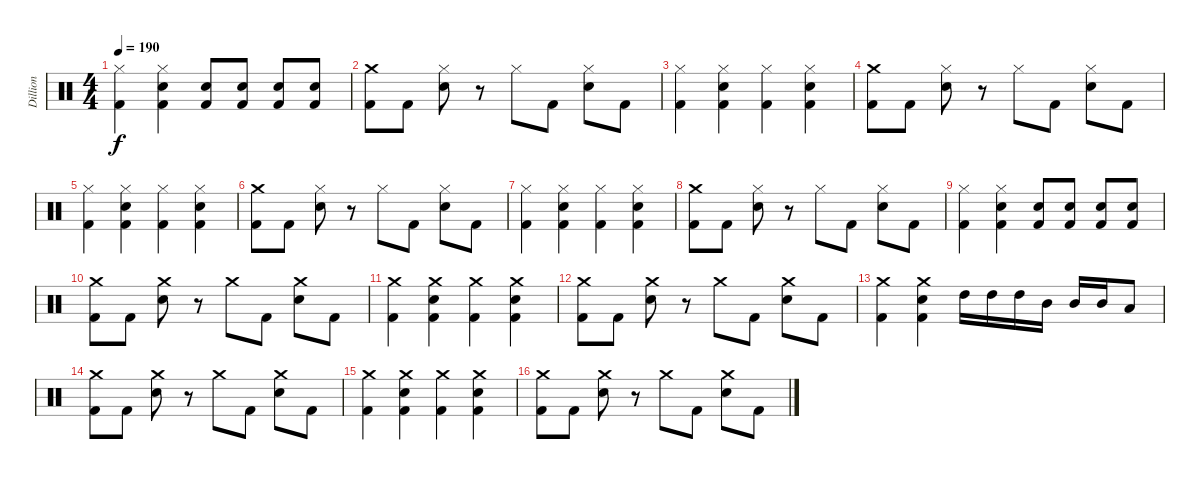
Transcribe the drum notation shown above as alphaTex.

\track ("Dillion" "Dillion") {instrument percussion}
\staff {score}
\articulation defaults
\ts (4 4)
\tempo 190
\clef neutral
\ks c
("Hi-Hat (closed)" "Kick (hit) 2").4{dy f} ("Hi-Hat (closed)" "Electric Snare (hit)" "Kick (hit) 2").4 ("Electric Snare (hit)" "Kick (hit) 2").8 ("Electric Snare (hit)" "Kick (hit) 2").8 ("Electric Snare (hit)" "Kick (hit) 2").8 ("Electric Snare (hit)" "Kick (hit) 2").8 |
("Crash medium (hit)" "Kick (hit) 2").8 "Kick (hit) 2".8 ("Hi-Hat (closed)" "Electric Snare (hit)").8 r.8 "Hi-Hat (closed)".8 "Kick (hit) 2".8 ("Hi-Hat (closed)" "Electric Snare (hit)").8 "Kick (hit) 2".8 |
("Hi-Hat (closed)" "Kick (hit) 2").4 ("Hi-Hat (closed)" "Electric Snare (hit)" "Kick (hit) 2").4 ("Hi-Hat (closed)" "Kick (hit) 2").4 ("Hi-Hat (closed)" "Electric Snare (hit)" "Kick (hit) 2").4 |
("Crash medium (hit)" "Kick (hit) 2").8 "Kick (hit) 2".8 ("Hi-Hat (closed)" "Electric Snare (hit)").8 r.8 "Hi-Hat (closed)".8 "Kick (hit) 2".8 ("Hi-Hat (closed)" "Electric Snare (hit)").8 "Kick (hit) 2".8 |
("Hi-Hat (closed)" "Kick (hit) 2").4 ("Hi-Hat (closed)" "Electric Snare (hit)" "Kick (hit) 2").4 ("Hi-Hat (closed)" "Kick (hit) 2").4 ("Hi-Hat (closed)" "Electric Snare (hit)" "Kick (hit) 2").4 |
("Crash medium (hit)" "Kick (hit) 2").8 "Kick (hit) 2".8 ("Hi-Hat (closed)" "Electric Snare (hit)").8 r.8 "Hi-Hat (closed)".8 "Kick (hit) 2".8 ("Hi-Hat (closed)" "Electric Snare (hit)").8 "Kick (hit) 2".8 |
("Hi-Hat (closed)" "Kick (hit) 2").4 ("Hi-Hat (closed)" "Electric Snare (hit)" "Kick (hit) 2").4 ("Hi-Hat (closed)" "Kick (hit) 2").4 ("Hi-Hat (closed)" "Electric Snare (hit)" "Kick (hit) 2").4 |
("Crash medium (hit)" "Kick (hit) 2").8 "Kick (hit) 2".8 ("Hi-Hat (closed)" "Electric Snare (hit)").8 r.8 "Hi-Hat (closed)".8 "Kick (hit) 2".8 ("Hi-Hat (closed)" "Electric Snare (hit)").8 "Kick (hit) 2".8 |
("Hi-Hat (closed)" "Kick (hit) 2").4 ("Hi-Hat (closed)" "Electric Snare (hit)" "Kick (hit) 2").4 ("Electric Snare (hit)" "Kick (hit) 2").8 ("Electric Snare (hit)" "Kick (hit) 2").8 ("Electric Snare (hit)" "Kick (hit) 2").8 ("Electric Snare (hit)" "Kick (hit) 2").8 |
("Crash medium (hit)" "Kick (hit) 2").8 "Kick (hit) 2".8 ("Crash medium (hit)" "Electric Snare (hit)").8 r.8 "Crash medium (hit)".8 "Kick (hit) 2".8 ("Crash medium (hit)" "Electric Snare (hit)").8 "Kick (hit) 2".8 |
("Crash medium (hit)" "Kick (hit) 2").4 ("Crash medium (hit)" "Electric Snare (hit)" "Kick (hit) 2").4 ("Crash medium (hit)" "Kick (hit) 2").4 ("Crash medium (hit)" "Electric Snare (hit)" "Kick (hit) 2").4 |
("Crash medium (hit)" "Kick (hit) 2").8 "Kick (hit) 2".8 ("Crash medium (hit)" "Electric Snare (hit)").8 r.8 "Crash medium (hit)".8 "Kick (hit) 2".8 ("Crash medium (hit)" "Electric Snare (hit)").8 "Kick (hit) 2".8 |
("Crash medium (hit)" "Kick (hit) 2").4 ("Crash medium (hit)" "Electric Snare (hit)" "Kick (hit) 2").4 "High Tom (hit)".16 "High Tom (hit)".16 "High Tom (hit)".16 "Mid Tom (hit)".16 "Mid Tom (hit)".16 "Mid Tom (hit)".16 "Low Tom (hit)".8 |
("Crash medium (hit)" "Kick (hit) 2").8 "Kick (hit) 2".8 ("Crash medium (hit)" "Electric Snare (hit)").8 r.8 "Crash medium (hit)".8 "Kick (hit) 2".8 ("Crash medium (hit)" "Electric Snare (hit)").8 "Kick (hit) 2".8 |
("Crash medium (hit)" "Kick (hit) 2").4 ("Crash medium (hit)" "Electric Snare (hit)" "Kick (hit) 2").4 ("Crash medium (hit)" "Kick (hit) 2").4 ("Crash medium (hit)" "Electric Snare (hit)" "Kick (hit) 2").4 |
("Crash medium (hit)" "Kick (hit) 2").8 "Kick (hit) 2".8 ("Crash medium (hit)" "Electric Snare (hit)").8 r.8 "Crash medium (hit)".8 "Kick (hit) 2".8 ("Crash medium (hit)" "Electric Snare (hit)").8 "Kick (hit) 2".8
